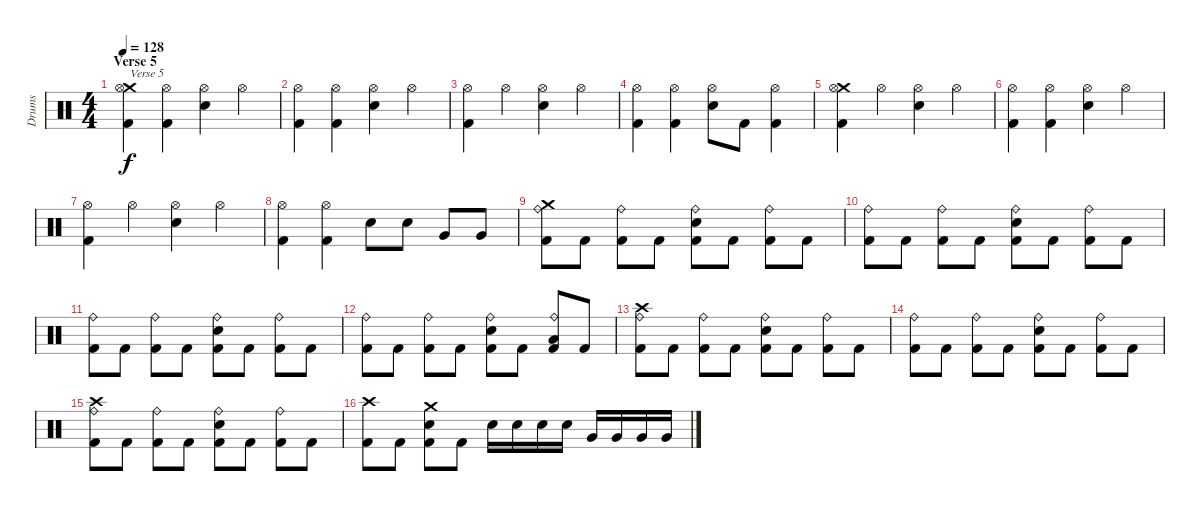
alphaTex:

\track ("Drums" "Drums") {instrument percussion}
\staff {score}
\articulation defaults
\ts (4 4)
\section ("" "Verse 5")
\tempo 128
\clef neutral
\ks c
("Crash medium (hit)" "Hi-Hat (open)" "Kick (hit) 2").4{txt "Verse 5" dy f} ("Hi-Hat (open)" "Kick (hit) 2").4 ("Hi-Hat (open)" "Electric Snare (hit)").4 "Hi-Hat (open)".4 |
("Hi-Hat (open)" "Kick (hit) 2").4 ("Hi-Hat (open)" "Kick (hit) 2").4 ("Hi-Hat (open)" "Electric Snare (hit)").4 "Hi-Hat (open)".4 |
("Hi-Hat (open)" "Kick (hit) 2").4 "Hi-Hat (open)".4 ("Hi-Hat (open)" "Electric Snare (hit)").4 "Hi-Hat (open)".4 |
("Hi-Hat (open)" "Kick (hit) 2").4 ("Hi-Hat (open)" "Kick (hit) 2").4 ("Hi-Hat (open)" "Electric Snare (hit)").8 "Kick (hit) 2".8 ("Hi-Hat (open)" "Kick (hit) 2").4 |
("Crash medium (hit)" "Hi-Hat (open)" "Kick (hit) 2").4 "Hi-Hat (open)".4 ("Hi-Hat (open)" "Electric Snare (hit)").4 "Hi-Hat (open)".4 |
("Hi-Hat (open)" "Kick (hit) 2").4 ("Hi-Hat (open)" "Kick (hit) 2").4 ("Hi-Hat (open)" "Electric Snare (hit)").4 "Hi-Hat (open)".4 |
("Hi-Hat (open)" "Kick (hit) 2").4 "Hi-Hat (open)".4 ("Hi-Hat (open)" "Electric Snare (hit)").4 "Hi-Hat (open)".4 |
("Hi-Hat (open)" "Kick (hit) 2").4 ("Hi-Hat (open)" "Kick (hit) 2").4 "Electric Snare (hit)".8 "Electric Snare (hit)".8 "Very Low Tom (hit)".8 "Very Low Tom (hit)".8 |
("Crash medium (hit)" "Ride (bell)" "Kick (hit) 2").8 "Kick (hit) 2".8 ("Ride (bell)" "Kick (hit) 2").8 "Kick (hit) 2".8 ("Ride (bell)" "Electric Snare (hit)" "Kick (hit) 2").8 "Kick (hit) 2".8 ("Ride (bell)" "Kick (hit) 2").8 "Kick (hit) 2".8 |
("Ride (bell)" "Kick (hit) 2").8 "Kick (hit) 2".8 ("Ride (bell)" "Kick (hit) 2").8 "Kick (hit) 2".8 ("Ride (bell)" "Electric Snare (hit)" "Kick (hit) 2").8 "Kick (hit) 2".8 ("Ride (bell)" "Kick (hit) 2").8 "Kick (hit) 2".8 |
("Ride (bell)" "Kick (hit) 2").8 "Kick (hit) 2".8 ("Ride (bell)" "Kick (hit) 2").8 "Kick (hit) 2".8 ("Ride (bell)" "Electric Snare (hit)" "Kick (hit) 2").8 "Kick (hit) 2".8 ("Ride (bell)" "Kick (hit) 2").8 "Kick (hit) 2".8 |
("Ride (bell)" "Kick (hit) 2").8 "Kick (hit) 2".8 ("Ride (bell)" "Kick (hit) 2").8 "Kick (hit) 2".8 ("Ride (bell)" "Electric Snare (hit)" "Kick (hit) 2").8 "Kick (hit) 2".8 ("Ride (bell)" "Low Floor Tom (hit)" "Kick (hit) 2").8 "Kick (hit) 2".8 |
("Crash high (hit)" "Ride (bell)" "Kick (hit) 2").8 "Kick (hit) 2".8 ("Ride (bell)" "Kick (hit) 2").8 "Kick (hit) 2".8 ("Ride (bell)" "Electric Snare (hit)" "Kick (hit) 2").8 "Kick (hit) 2".8 ("Ride (bell)" "Kick (hit) 2").8 "Kick (hit) 2".8 |
("Ride (bell)" "Kick (hit) 2").8 "Kick (hit) 2".8 ("Ride (bell)" "Kick (hit) 2").8 "Kick (hit) 2".8 ("Ride (bell)" "Electric Snare (hit)" "Kick (hit) 2").8 "Kick (hit) 2".8 ("Ride (bell)" "Kick (hit) 2").8 "Kick (hit) 2".8 |
("Crash high (hit)" "Ride (bell)" "Kick (hit) 2").8 "Kick (hit) 2".8 ("Ride (bell)" "Kick (hit) 2").8 "Kick (hit) 2".8 ("Ride (bell)" "Electric Snare (hit)" "Kick (hit) 2").8 "Kick (hit) 2".8 ("Ride (bell)" "Kick (hit) 2").8 "Kick (hit) 2".8 |
("Crash high (hit)" "Kick (hit) 2").8 "Kick (hit) 2".8 ("Crash medium (hit)" "Electric Snare (hit)" "Kick (hit) 2").8 "Kick (hit) 2".8 "Electric Snare (hit)".16 "Electric Snare (hit)".16 "Electric Snare (hit)".16 "Electric Snare (hit)".16 "Very Low Tom (hit)".16 "Very Low Tom (hit)".16 "Very Low Tom (hit)".16 "Very Low Tom (hit)".16
